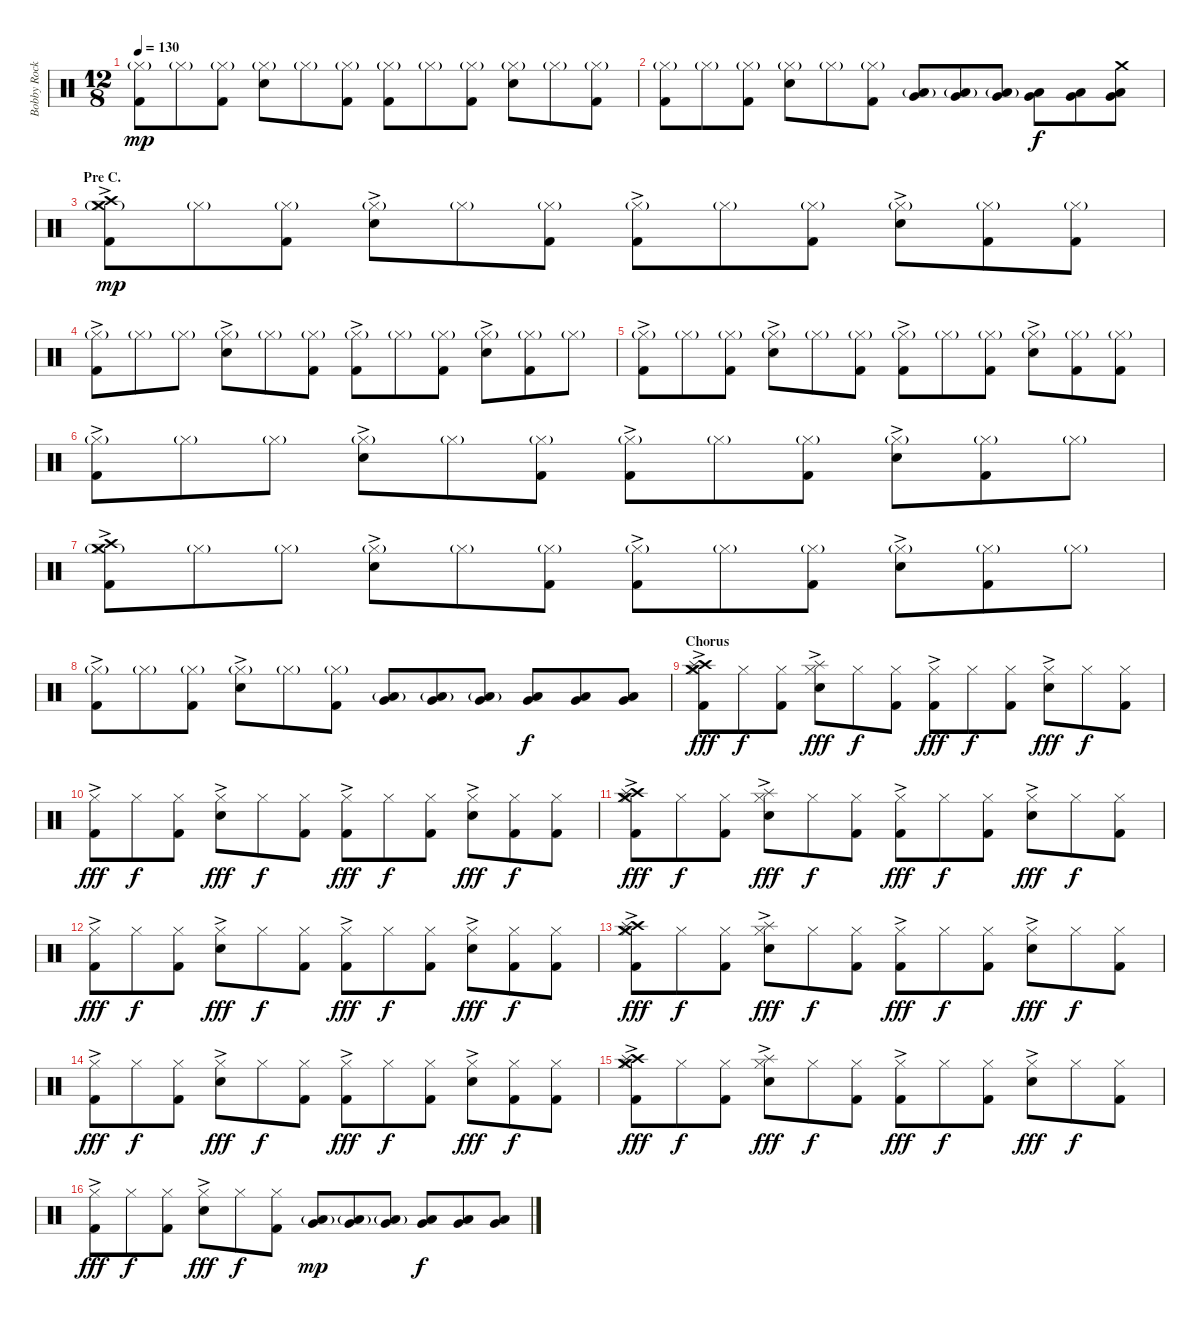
\track ("Bobby Rock - drums" "Bobby Rock") {instrument percussion}
\staff {score}
\articulation defaults
\ts (12 8)
\tempo 130
\clef neutral
\ks c
("Hi-Hat (closed)"{g} "Kick (hit) 2").8{dy mp} "Hi-Hat (closed)"{g}.8 ("Hi-Hat (closed)"{g} "Kick (hit) 2").8 ("Hi-Hat (closed)"{g} "Snare (hit) 2").8 "Hi-Hat (closed)"{g}.8 ("Hi-Hat (closed)"{g} "Kick (hit) 2").8 ("Hi-Hat (closed)"{g} "Kick (hit) 2").8 "Hi-Hat (closed)"{g}.8 ("Hi-Hat (closed)"{g} "Kick (hit) 2").8 ("Hi-Hat (closed)"{g} "Snare (hit) 2").8 "Hi-Hat (closed)"{g}.8 ("Hi-Hat (closed)"{g} "Kick (hit) 2").8 |
("Hi-Hat (closed)"{g} "Kick (hit) 2").8 "Hi-Hat (closed)"{g}.8 ("Hi-Hat (closed)"{g} "Kick (hit) 2").8 ("Hi-Hat (closed)"{g} "Snare (hit) 2").8 "Hi-Hat (closed)"{g}.8 ("Hi-Hat (closed)"{g} "Kick (hit) 2").8 ("Very Low Tom (hit)" "Low Floor Tom (hit)"{g}).8 ("Very Low Tom (hit)" "Low Floor Tom (hit)"{g}).8 ("Very Low Tom (hit)" "Low Floor Tom (hit)"{g}).8 ("Very Low Tom (hit)" "Low Floor Tom (hit)").8{dy f} ("Very Low Tom (hit)" "Low Floor Tom (hit)").8 ("Crash medium (hit)" "Very Low Tom (hit)" "Low Floor Tom (hit)").8 |
\section ("" "Pre C.")
("Hi-Hat (closed)"{g ac} "Crash high (hit)" "Crash medium (hit)" "Kick (hit) 2").8{dy mp} "Hi-Hat (closed)"{g}.8 ("Hi-Hat (closed)"{g} "Kick (hit) 2").8 ("Hi-Hat (closed)"{g ac} "Snare (hit) 2").8 "Hi-Hat (closed)"{g}.8 ("Hi-Hat (closed)"{g} "Kick (hit) 2").8 ("Hi-Hat (closed)"{g ac} "Kick (hit) 2").8 "Hi-Hat (closed)"{g}.8 ("Hi-Hat (closed)"{g} "Kick (hit) 2").8 ("Hi-Hat (closed)"{g ac} "Snare (hit) 2").8 ("Hi-Hat (closed)"{g} "Kick (hit) 2").8 ("Hi-Hat (closed)"{g} "Kick (hit) 2").8 |
("Hi-Hat (closed)"{g ac} "Kick (hit) 2").8 "Hi-Hat (closed)"{g}.8 "Hi-Hat (closed)"{g}.8 ("Hi-Hat (closed)"{g ac} "Snare (hit) 2").8 "Hi-Hat (closed)"{g}.8 ("Hi-Hat (closed)"{g} "Kick (hit) 2").8 ("Hi-Hat (closed)"{g ac} "Kick (hit) 2").8 "Hi-Hat (closed)"{g}.8 ("Hi-Hat (closed)"{g} "Kick (hit) 2").8 ("Hi-Hat (closed)"{g ac} "Snare (hit) 2").8 ("Hi-Hat (closed)"{g} "Kick (hit) 2").8 "Hi-Hat (closed)"{g}.8 |
("Hi-Hat (closed)"{g ac} "Kick (hit) 2").8 "Hi-Hat (closed)"{g}.8 ("Hi-Hat (closed)"{g} "Kick (hit) 2").8 ("Hi-Hat (closed)"{g ac} "Snare (hit) 2").8 "Hi-Hat (closed)"{g}.8 ("Hi-Hat (closed)"{g} "Kick (hit) 2").8 ("Hi-Hat (closed)"{g ac} "Kick (hit) 2").8 "Hi-Hat (closed)"{g}.8 ("Hi-Hat (closed)"{g} "Kick (hit) 2").8 ("Hi-Hat (closed)"{g ac} "Snare (hit) 2").8 ("Hi-Hat (closed)"{g} "Kick (hit) 2").8 ("Hi-Hat (closed)"{g} "Kick (hit) 2").8 |
("Hi-Hat (closed)"{g ac} "Kick (hit) 2").8 "Hi-Hat (closed)"{g}.8 "Hi-Hat (closed)"{g}.8 ("Hi-Hat (closed)"{g ac} "Snare (hit) 2").8 "Hi-Hat (closed)"{g}.8 ("Hi-Hat (closed)"{g} "Kick (hit) 2").8 ("Hi-Hat (closed)"{g ac} "Kick (hit) 2").8 "Hi-Hat (closed)"{g}.8 ("Hi-Hat (closed)"{g} "Kick (hit) 2").8 ("Hi-Hat (closed)"{g ac} "Snare (hit) 2").8 ("Hi-Hat (closed)"{g} "Kick (hit) 2").8 "Hi-Hat (closed)"{g}.8 |
("Hi-Hat (closed)"{g ac} "Crash high (hit)" "Crash medium (hit)" "Kick (hit) 2").8 "Hi-Hat (closed)"{g}.8 "Hi-Hat (closed)"{g}.8 ("Hi-Hat (closed)"{g ac} "Snare (hit) 2").8 "Hi-Hat (closed)"{g}.8 ("Hi-Hat (closed)"{g} "Kick (hit) 2").8 ("Hi-Hat (closed)"{g ac} "Kick (hit) 2").8 "Hi-Hat (closed)"{g}.8 ("Hi-Hat (closed)"{g} "Kick (hit) 2").8 ("Hi-Hat (closed)"{g ac} "Snare (hit) 2").8 ("Hi-Hat (closed)"{g} "Kick (hit) 2").8 "Hi-Hat (closed)"{g}.8 |
("Hi-Hat (closed)"{g ac} "Kick (hit) 2").8 "Hi-Hat (closed)"{g}.8 ("Hi-Hat (closed)"{g} "Kick (hit) 2").8 ("Hi-Hat (closed)"{g ac} "Snare (hit) 2").8 "Hi-Hat (closed)"{g}.8 ("Hi-Hat (closed)"{g} "Kick (hit) 2").8 ("Very Low Tom (hit)" "Low Floor Tom (hit)"{g}).8 ("Very Low Tom (hit)" "Low Floor Tom (hit)"{g}).8 ("Very Low Tom (hit)" "Low Floor Tom (hit)"{g}).8 ("Very Low Tom (hit)" "Low Floor Tom (hit)").8{dy f} ("Very Low Tom (hit)" "Low Floor Tom (hit)").8 ("Very Low Tom (hit)" "Low Floor Tom (hit)").8 |
\section ("" "Chorus")
("Hi-Hat (closed)"{ac} "Crash high (hit)" "Crash medium (hit)" "Splash (hit)" "Kick (hit) 2").8{dy fff} "Hi-Hat (closed)".8{dy f} ("Hi-Hat (closed)" "Kick (hit) 2").8 ("Hi-Hat (closed)"{ac} "Splash (hit)" "Snare (hit) 2").8{dy fff} "Hi-Hat (closed)".8{dy f} ("Hi-Hat (closed)" "Kick (hit) 2").8 ("Hi-Hat (closed)"{ac} "Kick (hit) 2").8{dy fff} "Hi-Hat (closed)".8{dy f} ("Hi-Hat (closed)" "Kick (hit) 2").8 ("Hi-Hat (closed)"{ac} "Snare (hit) 2").8{dy fff} "Hi-Hat (closed)".8{dy f} ("Hi-Hat (closed)" "Kick (hit) 2").8 |
("Hi-Hat (closed)"{ac} "Kick (hit) 2").8{dy fff} "Hi-Hat (closed)".8{dy f} ("Hi-Hat (closed)" "Kick (hit) 2").8 ("Hi-Hat (closed)"{ac} "Snare (hit) 2").8{dy fff} "Hi-Hat (closed)".8{dy f} ("Hi-Hat (closed)" "Kick (hit) 2").8 ("Hi-Hat (closed)"{ac} "Kick (hit) 2").8{dy fff} "Hi-Hat (closed)".8{dy f} ("Hi-Hat (closed)" "Kick (hit) 2").8 ("Hi-Hat (closed)"{ac} "Snare (hit) 2").8{dy fff} ("Hi-Hat (closed)" "Kick (hit) 2").8{dy f} ("Hi-Hat (closed)" "Kick (hit) 2").8 |
("Hi-Hat (closed)"{ac} "Crash high (hit)" "Crash medium (hit)" "Splash (hit)" "Kick (hit) 2").8{dy fff} "Hi-Hat (closed)".8{dy f} ("Hi-Hat (closed)" "Kick (hit) 2").8 ("Hi-Hat (closed)"{ac} "Splash (hit)" "Snare (hit) 2").8{dy fff} "Hi-Hat (closed)".8{dy f} ("Hi-Hat (closed)" "Kick (hit) 2").8 ("Hi-Hat (closed)"{ac} "Kick (hit) 2").8{dy fff} "Hi-Hat (closed)".8{dy f} ("Hi-Hat (closed)" "Kick (hit) 2").8 ("Hi-Hat (closed)"{ac} "Snare (hit) 2").8{dy fff} "Hi-Hat (closed)".8{dy f} ("Hi-Hat (closed)" "Kick (hit) 2").8 |
("Hi-Hat (closed)"{ac} "Kick (hit) 2").8{dy fff} "Hi-Hat (closed)".8{dy f} ("Hi-Hat (closed)" "Kick (hit) 2").8 ("Hi-Hat (closed)"{ac} "Snare (hit) 2").8{dy fff} "Hi-Hat (closed)".8{dy f} ("Hi-Hat (closed)" "Kick (hit) 2").8 ("Hi-Hat (closed)"{ac} "Kick (hit) 2").8{dy fff} "Hi-Hat (closed)".8{dy f} ("Hi-Hat (closed)" "Kick (hit) 2").8 ("Hi-Hat (closed)"{ac} "Snare (hit) 2").8{dy fff} ("Hi-Hat (closed)" "Kick (hit) 2").8{dy f} ("Hi-Hat (closed)" "Kick (hit) 2").8 |
("Hi-Hat (closed)"{ac} "Crash high (hit)" "Crash medium (hit)" "Splash (hit)" "Kick (hit) 2").8{dy fff} "Hi-Hat (closed)".8{dy f} ("Hi-Hat (closed)" "Kick (hit) 2").8 ("Hi-Hat (closed)"{ac} "Splash (hit)" "Snare (hit) 2").8{dy fff} "Hi-Hat (closed)".8{dy f} ("Hi-Hat (closed)" "Kick (hit) 2").8 ("Hi-Hat (closed)"{ac} "Kick (hit) 2").8{dy fff} "Hi-Hat (closed)".8{dy f} ("Hi-Hat (closed)" "Kick (hit) 2").8 ("Hi-Hat (closed)"{ac} "Snare (hit) 2").8{dy fff} "Hi-Hat (closed)".8{dy f} ("Hi-Hat (closed)" "Kick (hit) 2").8 |
("Hi-Hat (closed)"{ac} "Kick (hit) 2").8{dy fff} "Hi-Hat (closed)".8{dy f} ("Hi-Hat (closed)" "Kick (hit) 2").8 ("Hi-Hat (closed)"{ac} "Snare (hit) 2").8{dy fff} "Hi-Hat (closed)".8{dy f} ("Hi-Hat (closed)" "Kick (hit) 2").8 ("Hi-Hat (closed)"{ac} "Kick (hit) 2").8{dy fff} "Hi-Hat (closed)".8{dy f} ("Hi-Hat (closed)" "Kick (hit) 2").8 ("Hi-Hat (closed)"{ac} "Snare (hit) 2").8{dy fff} ("Hi-Hat (closed)" "Kick (hit) 2").8{dy f} ("Hi-Hat (closed)" "Kick (hit) 2").8 |
("Hi-Hat (closed)"{ac} "Crash high (hit)" "Crash medium (hit)" "Splash (hit)" "Kick (hit) 2").8{dy fff} "Hi-Hat (closed)".8{dy f} ("Hi-Hat (closed)" "Kick (hit) 2").8 ("Hi-Hat (closed)"{ac} "Splash (hit)" "Snare (hit) 2").8{dy fff} "Hi-Hat (closed)".8{dy f} ("Hi-Hat (closed)" "Kick (hit) 2").8 ("Hi-Hat (closed)"{ac} "Kick (hit) 2").8{dy fff} "Hi-Hat (closed)".8{dy f} ("Hi-Hat (closed)" "Kick (hit) 2").8 ("Hi-Hat (closed)"{ac} "Snare (hit) 2").8{dy fff} "Hi-Hat (closed)".8{dy f} ("Hi-Hat (closed)" "Kick (hit) 2").8 |
("Hi-Hat (closed)"{ac} "Kick (hit) 2").8{dy fff} "Hi-Hat (closed)".8{dy f} ("Hi-Hat (closed)" "Kick (hit) 2").8 ("Hi-Hat (closed)"{ac} "Snare (hit) 2").8{dy fff} "Hi-Hat (closed)".8{dy f} ("Hi-Hat (closed)" "Kick (hit) 2").8 ("Very Low Tom (hit)" "Low Floor Tom (hit)"{g}).8{dy mp} ("Very Low Tom (hit)" "Low Floor Tom (hit)"{g}).8 ("Very Low Tom (hit)" "Low Floor Tom (hit)"{g}).8 ("Very Low Tom (hit)" "Low Floor Tom (hit)").8{dy f} ("Very Low Tom (hit)" "Low Floor Tom (hit)").8 ("Very Low Tom (hit)" "Low Floor Tom (hit)").8
